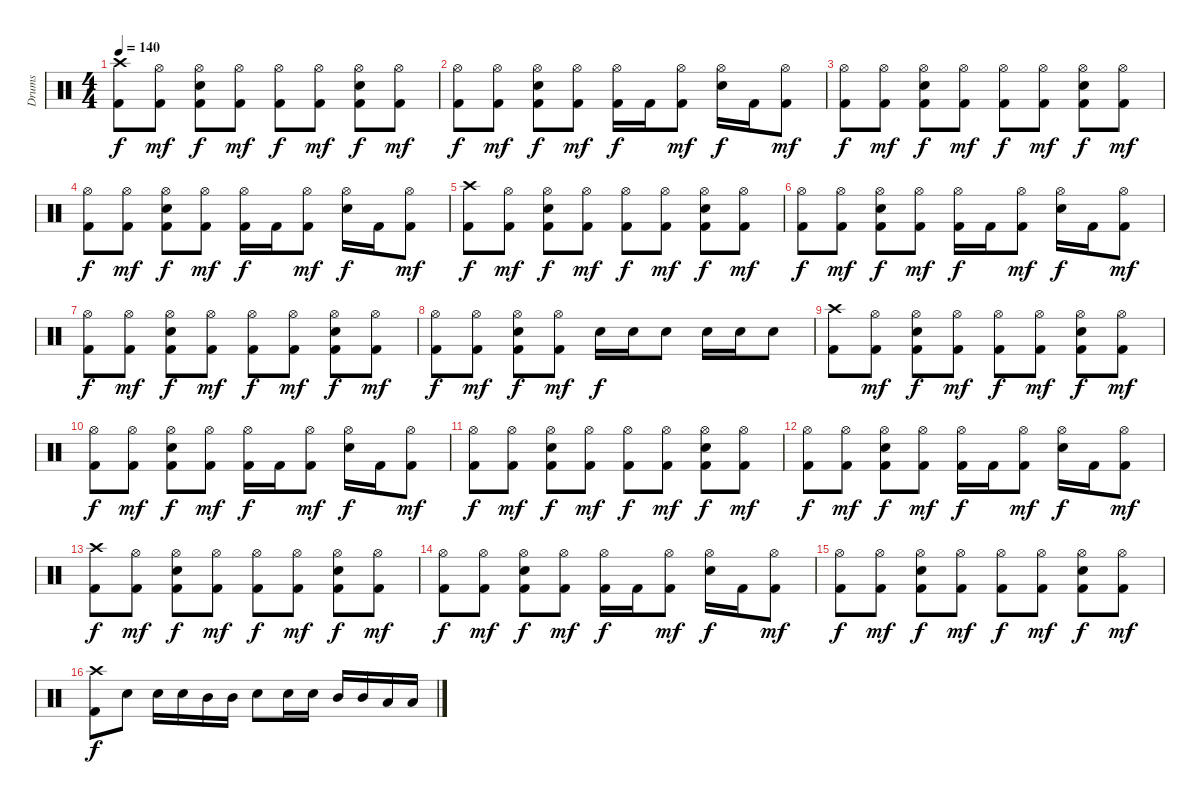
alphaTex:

\track ("Drums" "Drums") {instrument percussion}
\staff {score}
\articulation defaults
\ts (4 4)
\tempo 140
\clef neutral
\ks c
("Crash high (hit)" "Kick (hit) 2").8{dy f} ("Hi-Hat (open)" "Kick (hit) 2").8{dy mf} ("Hi-Hat (open)" "Electric Snare (hit)" "Kick (hit) 2").8{dy f} ("Hi-Hat (open)" "Kick (hit) 2").8{dy mf} ("Hi-Hat (open)" "Kick (hit) 2").8{dy f} ("Hi-Hat (open)" "Kick (hit) 2").8{dy mf} ("Hi-Hat (open)" "Electric Snare (hit)" "Kick (hit) 2").8{dy f} ("Hi-Hat (open)" "Kick (hit) 2").8{dy mf} |
("Hi-Hat (open)" "Kick (hit) 2").8{dy f} ("Hi-Hat (open)" "Kick (hit) 2").8{dy mf} ("Hi-Hat (open)" "Electric Snare (hit)" "Kick (hit) 2").8{dy f} ("Hi-Hat (open)" "Kick (hit) 2").8{dy mf} ("Hi-Hat (open)" "Kick (hit) 2").16{dy f} "Kick (hit) 2".16 ("Hi-Hat (open)" "Kick (hit) 2").8{dy mf} ("Hi-Hat (open)" "Electric Snare (hit)").16{dy f} "Kick (hit) 2".16 ("Hi-Hat (open)" "Kick (hit) 2").8{dy mf} |
("Hi-Hat (open)" "Kick (hit) 2").8{dy f} ("Hi-Hat (open)" "Kick (hit) 2").8{dy mf} ("Hi-Hat (open)" "Electric Snare (hit)" "Kick (hit) 2").8{dy f} ("Hi-Hat (open)" "Kick (hit) 2").8{dy mf} ("Hi-Hat (open)" "Kick (hit) 2").8{dy f} ("Hi-Hat (open)" "Kick (hit) 2").8{dy mf} ("Hi-Hat (open)" "Electric Snare (hit)" "Kick (hit) 2").8{dy f} ("Hi-Hat (open)" "Kick (hit) 2").8{dy mf} |
("Hi-Hat (open)" "Kick (hit) 2").8{dy f} ("Hi-Hat (open)" "Kick (hit) 2").8{dy mf} ("Hi-Hat (open)" "Electric Snare (hit)" "Kick (hit) 2").8{dy f} ("Hi-Hat (open)" "Kick (hit) 2").8{dy mf} ("Hi-Hat (open)" "Kick (hit) 2").16{dy f} "Kick (hit) 2".16 ("Hi-Hat (open)" "Kick (hit) 2").8{dy mf} ("Hi-Hat (open)" "Electric Snare (hit)").16{dy f} "Kick (hit) 2".16 ("Hi-Hat (open)" "Kick (hit) 2").8{dy mf} |
("Crash high (hit)" "Kick (hit) 2").8{dy f} ("Hi-Hat (open)" "Kick (hit) 2").8{dy mf} ("Hi-Hat (open)" "Electric Snare (hit)" "Kick (hit) 2").8{dy f} ("Hi-Hat (open)" "Kick (hit) 2").8{dy mf} ("Hi-Hat (open)" "Kick (hit) 2").8{dy f} ("Hi-Hat (open)" "Kick (hit) 2").8{dy mf} ("Hi-Hat (open)" "Electric Snare (hit)" "Kick (hit) 2").8{dy f} ("Hi-Hat (open)" "Kick (hit) 2").8{dy mf} |
("Hi-Hat (open)" "Kick (hit) 2").8{dy f} ("Hi-Hat (open)" "Kick (hit) 2").8{dy mf} ("Hi-Hat (open)" "Electric Snare (hit)" "Kick (hit) 2").8{dy f} ("Hi-Hat (open)" "Kick (hit) 2").8{dy mf} ("Hi-Hat (open)" "Kick (hit) 2").16{dy f} "Kick (hit) 2".16 ("Hi-Hat (open)" "Kick (hit) 2").8{dy mf} ("Hi-Hat (open)" "Electric Snare (hit)").16{dy f} "Kick (hit) 2".16 ("Hi-Hat (open)" "Kick (hit) 2").8{dy mf} |
("Hi-Hat (open)" "Kick (hit) 2").8{dy f} ("Hi-Hat (open)" "Kick (hit) 2").8{dy mf} ("Hi-Hat (open)" "Electric Snare (hit)" "Kick (hit) 2").8{dy f} ("Hi-Hat (open)" "Kick (hit) 2").8{dy mf} ("Hi-Hat (open)" "Kick (hit) 2").8{dy f} ("Hi-Hat (open)" "Kick (hit) 2").8{dy mf} ("Hi-Hat (open)" "Electric Snare (hit)" "Kick (hit) 2").8{dy f} ("Hi-Hat (open)" "Kick (hit) 2").8{dy mf} |
("Hi-Hat (open)" "Kick (hit) 2").8{dy f} ("Hi-Hat (open)" "Kick (hit) 2").8{dy mf} ("Hi-Hat (open)" "Electric Snare (hit)" "Kick (hit) 2").8{dy f} ("Hi-Hat (open)" "Kick (hit) 2").8{dy mf} "Electric Snare (hit)".16{dy f} "Electric Snare (hit)".16 "Electric Snare (hit)".8 "Electric Snare (hit)".16 "Electric Snare (hit)".16 "Electric Snare (hit)".8 |
("Crash high (hit)" "Kick (hit) 2").8 ("Hi-Hat (open)" "Kick (hit) 2").8{dy mf} ("Hi-Hat (open)" "Electric Snare (hit)" "Kick (hit) 2").8{dy f} ("Hi-Hat (open)" "Kick (hit) 2").8{dy mf} ("Hi-Hat (open)" "Kick (hit) 2").8{dy f} ("Hi-Hat (open)" "Kick (hit) 2").8{dy mf} ("Hi-Hat (open)" "Electric Snare (hit)" "Kick (hit) 2").8{dy f} ("Hi-Hat (open)" "Kick (hit) 2").8{dy mf} |
("Hi-Hat (open)" "Kick (hit) 2").8{dy f} ("Hi-Hat (open)" "Kick (hit) 2").8{dy mf} ("Hi-Hat (open)" "Electric Snare (hit)" "Kick (hit) 2").8{dy f} ("Hi-Hat (open)" "Kick (hit) 2").8{dy mf} ("Hi-Hat (open)" "Kick (hit) 2").16{dy f} "Kick (hit) 2".16 ("Hi-Hat (open)" "Kick (hit) 2").8{dy mf} ("Hi-Hat (open)" "Electric Snare (hit)").16{dy f} "Kick (hit) 2".16 ("Hi-Hat (open)" "Kick (hit) 2").8{dy mf} |
("Hi-Hat (open)" "Kick (hit) 2").8{dy f} ("Hi-Hat (open)" "Kick (hit) 2").8{dy mf} ("Hi-Hat (open)" "Electric Snare (hit)" "Kick (hit) 2").8{dy f} ("Hi-Hat (open)" "Kick (hit) 2").8{dy mf} ("Hi-Hat (open)" "Kick (hit) 2").8{dy f} ("Hi-Hat (open)" "Kick (hit) 2").8{dy mf} ("Hi-Hat (open)" "Electric Snare (hit)" "Kick (hit) 2").8{dy f} ("Hi-Hat (open)" "Kick (hit) 2").8{dy mf} |
("Hi-Hat (open)" "Kick (hit) 2").8{dy f} ("Hi-Hat (open)" "Kick (hit) 2").8{dy mf} ("Hi-Hat (open)" "Electric Snare (hit)" "Kick (hit) 2").8{dy f} ("Hi-Hat (open)" "Kick (hit) 2").8{dy mf} ("Hi-Hat (open)" "Kick (hit) 2").16{dy f} "Kick (hit) 2".16 ("Hi-Hat (open)" "Kick (hit) 2").8{dy mf} ("Hi-Hat (open)" "Electric Snare (hit)").16{dy f} "Kick (hit) 2".16 ("Hi-Hat (open)" "Kick (hit) 2").8{dy mf} |
("Crash high (hit)" "Kick (hit) 2").8{dy f} ("Hi-Hat (open)" "Kick (hit) 2").8{dy mf} ("Hi-Hat (open)" "Electric Snare (hit)" "Kick (hit) 2").8{dy f} ("Hi-Hat (open)" "Kick (hit) 2").8{dy mf} ("Hi-Hat (open)" "Kick (hit) 2").8{dy f} ("Hi-Hat (open)" "Kick (hit) 2").8{dy mf} ("Hi-Hat (open)" "Electric Snare (hit)" "Kick (hit) 2").8{dy f} ("Hi-Hat (open)" "Kick (hit) 2").8{dy mf} |
("Hi-Hat (open)" "Kick (hit) 2").8{dy f} ("Hi-Hat (open)" "Kick (hit) 2").8{dy mf} ("Hi-Hat (open)" "Electric Snare (hit)" "Kick (hit) 2").8{dy f} ("Hi-Hat (open)" "Kick (hit) 2").8{dy mf} ("Hi-Hat (open)" "Kick (hit) 2").16{dy f} "Kick (hit) 2".16 ("Hi-Hat (open)" "Kick (hit) 2").8{dy mf} ("Hi-Hat (open)" "Electric Snare (hit)").16{dy f} "Kick (hit) 2".16 ("Hi-Hat (open)" "Kick (hit) 2").8{dy mf} |
("Hi-Hat (open)" "Kick (hit) 2").8{dy f} ("Hi-Hat (open)" "Kick (hit) 2").8{dy mf} ("Hi-Hat (open)" "Electric Snare (hit)" "Kick (hit) 2").8{dy f} ("Hi-Hat (open)" "Kick (hit) 2").8{dy mf} ("Hi-Hat (open)" "Kick (hit) 2").8{dy f} ("Hi-Hat (open)" "Kick (hit) 2").8{dy mf} ("Hi-Hat (open)" "Electric Snare (hit)" "Kick (hit) 2").8{dy f} ("Hi-Hat (open)" "Kick (hit) 2").8{dy mf} |
("Crash high (hit)" "Kick (hit) 2").8{dy f} "Electric Snare (hit)".8 "Electric Snare (hit)".16 "Electric Snare (hit)".16 "Mid Tom (hit)".16 "Mid Tom (hit)".16 "Electric Snare (hit)".8 "Electric Snare (hit)".16 "Electric Snare (hit)".16 "Mid Tom (hit)".16 "Mid Tom (hit)".16 "Low Tom (hit)".16 "Low Tom (hit)".16
